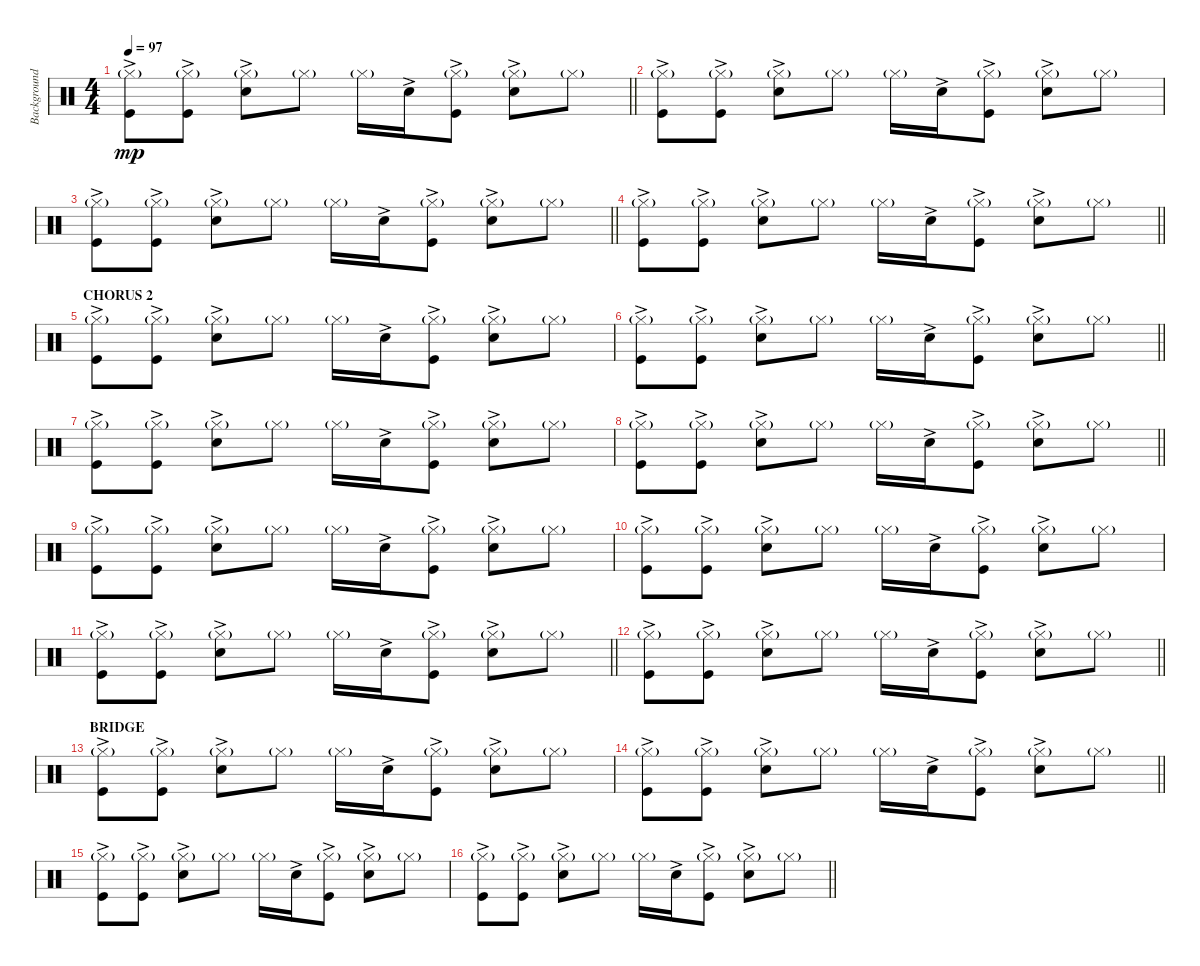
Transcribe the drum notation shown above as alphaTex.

\track ("Background Drums" "Background") {instrument percussion}
\staff {score}
\articulation defaults
\ts (4 4)
\tempo 97
\clef neutral
\barLineRight lightlight
\ks c
("Hi-Hat (closed)"{g} "Kick (hit)"{ac}).8{dy mp} ("Hi-Hat (closed)"{g} "Kick (hit)"{ac}).8 ("Hi-Hat (closed)"{g} "Hand Clap (hit)"{ac}).8 "Hi-Hat (closed)"{g}.8 "Hi-Hat (closed)"{g}.16 "Hand Clap (hit)"{ac}.16 ("Hi-Hat (closed)"{g} "Kick (hit)"{ac}).8 ("Hi-Hat (closed)"{g} "Hand Clap (hit)"{ac}).8 "Hi-Hat (closed)"{g}.8 |
("Hi-Hat (closed)"{g} "Kick (hit)"{ac}).8 ("Hi-Hat (closed)"{g} "Kick (hit)"{ac}).8 ("Hi-Hat (closed)"{g} "Hand Clap (hit)"{ac}).8 "Hi-Hat (closed)"{g}.8 "Hi-Hat (closed)"{g}.16 "Hand Clap (hit)"{ac}.16 ("Hi-Hat (closed)"{g} "Kick (hit)"{ac}).8 ("Hi-Hat (closed)"{g} "Hand Clap (hit)"{ac}).8 "Hi-Hat (closed)"{g}.8 |
\barLineRight lightlight
("Hi-Hat (closed)"{g} "Kick (hit)"{ac}).8 ("Hi-Hat (closed)"{g} "Kick (hit)"{ac}).8 ("Hi-Hat (closed)"{g} "Hand Clap (hit)"{ac}).8 "Hi-Hat (closed)"{g}.8 "Hi-Hat (closed)"{g}.16 "Hand Clap (hit)"{ac}.16 ("Hi-Hat (closed)"{g} "Kick (hit)"{ac}).8 ("Hi-Hat (closed)"{g} "Hand Clap (hit)"{ac}).8 "Hi-Hat (closed)"{g}.8 |
\barLineRight lightlight
("Hi-Hat (closed)"{g} "Kick (hit)"{ac}).8 ("Hi-Hat (closed)"{g} "Kick (hit)"{ac}).8 ("Hi-Hat (closed)"{g} "Hand Clap (hit)"{ac}).8 "Hi-Hat (closed)"{g}.8 "Hi-Hat (closed)"{g}.16 "Hand Clap (hit)"{ac}.16 ("Hi-Hat (closed)"{g} "Kick (hit)"{ac}).8 ("Hi-Hat (closed)"{g} "Hand Clap (hit)"{ac}).8 "Hi-Hat (closed)"{g}.8 |
\section ("" "CHORUS 2")
("Hi-Hat (closed)"{g} "Kick (hit)"{ac}).8 ("Hi-Hat (closed)"{g} "Kick (hit)"{ac}).8 ("Hi-Hat (closed)"{g} "Hand Clap (hit)"{ac}).8 "Hi-Hat (closed)"{g}.8 "Hi-Hat (closed)"{g}.16 "Hand Clap (hit)"{ac}.16 ("Hi-Hat (closed)"{g} "Kick (hit)"{ac}).8 ("Hi-Hat (closed)"{g} "Hand Clap (hit)"{ac}).8 "Hi-Hat (closed)"{g}.8 |
\barLineRight lightlight
("Hi-Hat (closed)"{g} "Kick (hit)"{ac}).8 ("Hi-Hat (closed)"{g} "Kick (hit)"{ac}).8 ("Hi-Hat (closed)"{g} "Hand Clap (hit)"{ac}).8 "Hi-Hat (closed)"{g}.8 "Hi-Hat (closed)"{g}.16 "Hand Clap (hit)"{ac}.16 ("Hi-Hat (closed)"{g} "Kick (hit)"{ac}).8 ("Hi-Hat (closed)"{g} "Hand Clap (hit)"{ac}).8 "Hi-Hat (closed)"{g}.8 |
("Hi-Hat (closed)"{g} "Kick (hit)"{ac}).8 ("Hi-Hat (closed)"{g} "Kick (hit)"{ac}).8 ("Hi-Hat (closed)"{g} "Hand Clap (hit)"{ac}).8 "Hi-Hat (closed)"{g}.8 "Hi-Hat (closed)"{g}.16 "Hand Clap (hit)"{ac}.16 ("Hi-Hat (closed)"{g} "Kick (hit)"{ac}).8 ("Hi-Hat (closed)"{g} "Hand Clap (hit)"{ac}).8 "Hi-Hat (closed)"{g}.8 |
\barLineRight lightlight
("Hi-Hat (closed)"{g} "Kick (hit)"{ac}).8 ("Hi-Hat (closed)"{g} "Kick (hit)"{ac}).8 ("Hi-Hat (closed)"{g} "Hand Clap (hit)"{ac}).8 "Hi-Hat (closed)"{g}.8 "Hi-Hat (closed)"{g}.16 "Hand Clap (hit)"{ac}.16 ("Hi-Hat (closed)"{g} "Kick (hit)"{ac}).8 ("Hi-Hat (closed)"{g} "Hand Clap (hit)"{ac}).8 "Hi-Hat (closed)"{g}.8 |
("Hi-Hat (closed)"{g} "Kick (hit)"{ac}).8 ("Hi-Hat (closed)"{g} "Kick (hit)"{ac}).8 ("Hi-Hat (closed)"{g} "Hand Clap (hit)"{ac}).8 "Hi-Hat (closed)"{g}.8 "Hi-Hat (closed)"{g}.16 "Hand Clap (hit)"{ac}.16 ("Hi-Hat (closed)"{g} "Kick (hit)"{ac}).8 ("Hi-Hat (closed)"{g} "Hand Clap (hit)"{ac}).8 "Hi-Hat (closed)"{g}.8 |
("Hi-Hat (closed)"{g} "Kick (hit)"{ac}).8 ("Hi-Hat (closed)"{g} "Kick (hit)"{ac}).8 ("Hi-Hat (closed)"{g} "Hand Clap (hit)"{ac}).8 "Hi-Hat (closed)"{g}.8 "Hi-Hat (closed)"{g}.16 "Hand Clap (hit)"{ac}.16 ("Hi-Hat (closed)"{g} "Kick (hit)"{ac}).8 ("Hi-Hat (closed)"{g} "Hand Clap (hit)"{ac}).8 "Hi-Hat (closed)"{g}.8 |
\barLineRight lightlight
("Hi-Hat (closed)"{g} "Kick (hit)"{ac}).8 ("Hi-Hat (closed)"{g} "Kick (hit)"{ac}).8 ("Hi-Hat (closed)"{g} "Hand Clap (hit)"{ac}).8 "Hi-Hat (closed)"{g}.8 "Hi-Hat (closed)"{g}.16 "Hand Clap (hit)"{ac}.16 ("Hi-Hat (closed)"{g} "Kick (hit)"{ac}).8 ("Hi-Hat (closed)"{g} "Hand Clap (hit)"{ac}).8 "Hi-Hat (closed)"{g}.8 |
\barLineRight lightlight
("Hi-Hat (closed)"{g} "Kick (hit)"{ac}).8 ("Hi-Hat (closed)"{g} "Kick (hit)"{ac}).8 ("Hi-Hat (closed)"{g} "Hand Clap (hit)"{ac}).8 "Hi-Hat (closed)"{g}.8 "Hi-Hat (closed)"{g}.16 "Hand Clap (hit)"{ac}.16 ("Hi-Hat (closed)"{g} "Kick (hit)"{ac}).8 ("Hi-Hat (closed)"{g} "Hand Clap (hit)"{ac}).8 "Hi-Hat (closed)"{g}.8 |
\section ("" "BRIDGE")
("Hi-Hat (closed)"{g} "Kick (hit)"{ac}).8 ("Hi-Hat (closed)"{g} "Kick (hit)"{ac}).8 ("Hi-Hat (closed)"{g} "Hand Clap (hit)"{ac}).8 "Hi-Hat (closed)"{g}.8 "Hi-Hat (closed)"{g}.16 "Hand Clap (hit)"{ac}.16 ("Hi-Hat (closed)"{g} "Kick (hit)"{ac}).8 ("Hi-Hat (closed)"{g} "Hand Clap (hit)"{ac}).8 "Hi-Hat (closed)"{g}.8 |
\barLineRight lightlight
("Hi-Hat (closed)"{g} "Kick (hit)"{ac}).8 ("Hi-Hat (closed)"{g} "Kick (hit)"{ac}).8 ("Hi-Hat (closed)"{g} "Hand Clap (hit)"{ac}).8 "Hi-Hat (closed)"{g}.8 "Hi-Hat (closed)"{g}.16 "Hand Clap (hit)"{ac}.16 ("Hi-Hat (closed)"{g} "Kick (hit)"{ac}).8 ("Hi-Hat (closed)"{g} "Hand Clap (hit)"{ac}).8 "Hi-Hat (closed)"{g}.8 |
("Hi-Hat (closed)"{g} "Kick (hit)"{ac}).8 ("Hi-Hat (closed)"{g} "Kick (hit)"{ac}).8 ("Hi-Hat (closed)"{g} "Hand Clap (hit)"{ac}).8 "Hi-Hat (closed)"{g}.8 "Hi-Hat (closed)"{g}.16 "Hand Clap (hit)"{ac}.16 ("Hi-Hat (closed)"{g} "Kick (hit)"{ac}).8 ("Hi-Hat (closed)"{g} "Hand Clap (hit)"{ac}).8 "Hi-Hat (closed)"{g}.8 |
\barLineRight lightlight
("Hi-Hat (closed)"{g} "Kick (hit)"{ac}).8 ("Hi-Hat (closed)"{g} "Kick (hit)"{ac}).8 ("Hi-Hat (closed)"{g} "Hand Clap (hit)"{ac}).8 "Hi-Hat (closed)"{g}.8 "Hi-Hat (closed)"{g}.16 "Hand Clap (hit)"{ac}.16 ("Hi-Hat (closed)"{g} "Kick (hit)"{ac}).8 ("Hi-Hat (closed)"{g} "Hand Clap (hit)"{ac}).8 "Hi-Hat (closed)"{g}.8
